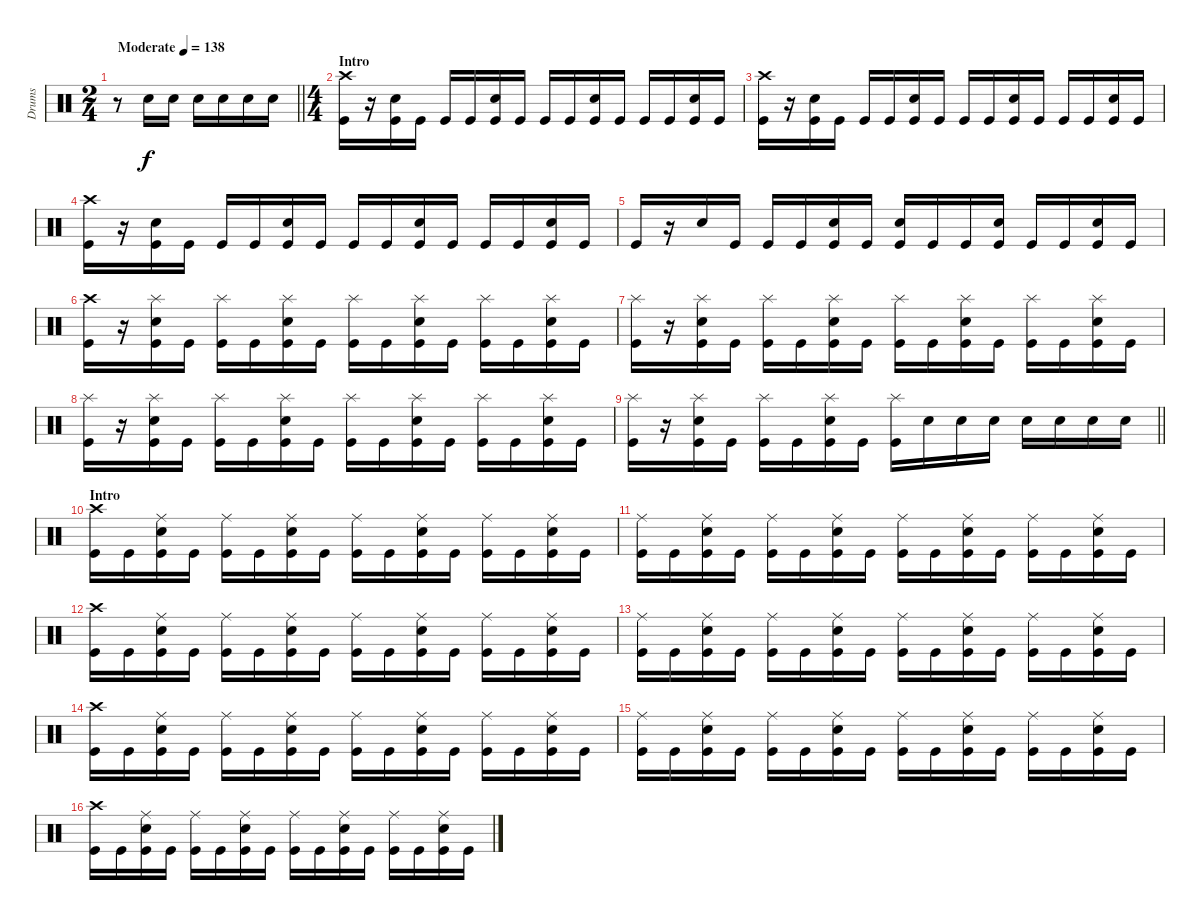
\track ("Drums" "Drums") {instrument percussion}
\staff {score}
\articulation defaults
\ts (2 4)
\tempo (138 "Moderate")
\clef neutral
\barLineRight lightlight
\ks c
r.8{dy f} "Electric Snare (hit)".16 "Electric Snare (hit)".16 "Electric Snare (hit)".16 "Electric Snare (hit)".16 "Electric Snare (hit)".16 "Electric Snare (hit)".16 |
\ts (4 4)
\section ("" "Intro")
("Crash high (hit)" "Kick (hit)").16 r.16 ("Electric Snare (hit)" "Kick (hit)").16 "Kick (hit)".16 "Kick (hit)".16 "Kick (hit)".16 ("Electric Snare (hit)" "Kick (hit)").16 "Kick (hit)".16 "Kick (hit)".16 "Kick (hit)".16 ("Electric Snare (hit)" "Kick (hit)").16 "Kick (hit)".16 "Kick (hit)".16 "Kick (hit)".16 ("Electric Snare (hit)" "Kick (hit)").16 "Kick (hit)".16 |
("Crash high (hit)" "Kick (hit)").16 r.16 ("Electric Snare (hit)" "Kick (hit)").16 "Kick (hit)".16 "Kick (hit)".16 "Kick (hit)".16 ("Electric Snare (hit)" "Kick (hit)").16 "Kick (hit)".16 "Kick (hit)".16 "Kick (hit)".16 ("Electric Snare (hit)" "Kick (hit)").16 "Kick (hit)".16 "Kick (hit)".16 "Kick (hit)".16 ("Electric Snare (hit)" "Kick (hit)").16 "Kick (hit)".16 |
("Crash high (hit)" "Kick (hit)").16 r.16 ("Electric Snare (hit)" "Kick (hit)").16 "Kick (hit)".16 "Kick (hit)".16 "Kick (hit)".16 ("Electric Snare (hit)" "Kick (hit)").16 "Kick (hit)".16 "Kick (hit)".16 "Kick (hit)".16 ("Electric Snare (hit)" "Kick (hit)").16 "Kick (hit)".16 "Kick (hit)".16 "Kick (hit)".16 ("Electric Snare (hit)" "Kick (hit)").16 "Kick (hit)".16 |
"Kick (hit)".16 r.16 "Electric Snare (hit)".16 "Kick (hit)".16 "Kick (hit)".16 "Kick (hit)".16 ("Electric Snare (hit)" "Kick (hit)").16 "Kick (hit)".16 ("Electric Snare (hit)" "Kick (hit)").16 "Kick (hit)".16 "Kick (hit)".16 ("Electric Snare (hit)" "Kick (hit)").16 "Kick (hit)".16 "Kick (hit)".16 ("Electric Snare (hit)" "Kick (hit)").16 "Kick (hit)".16 |
("Crash high (hit)" "Kick (hit)").16 r.16 ("Splash (hit)" "Electric Snare (hit)" "Kick (hit)").16 "Kick (hit)".16 ("Splash (hit)" "Kick (hit)").16 "Kick (hit)".16 ("Splash (hit)" "Electric Snare (hit)" "Kick (hit)").16 "Kick (hit)".16 ("Splash (hit)" "Kick (hit)").16 "Kick (hit)".16 ("Splash (hit)" "Electric Snare (hit)" "Kick (hit)").16 "Kick (hit)".16 ("Splash (hit)" "Kick (hit)").16 "Kick (hit)".16 ("Splash (hit)" "Electric Snare (hit)" "Kick (hit)").16 "Kick (hit)".16 |
("Splash (hit)" "Kick (hit)").16 r.16 ("Splash (hit)" "Electric Snare (hit)" "Kick (hit)").16 "Kick (hit)".16 ("Splash (hit)" "Kick (hit)").16 "Kick (hit)".16 ("Splash (hit)" "Electric Snare (hit)" "Kick (hit)").16 "Kick (hit)".16 ("Splash (hit)" "Kick (hit)").16 "Kick (hit)".16 ("Splash (hit)" "Electric Snare (hit)" "Kick (hit)").16 "Kick (hit)".16 ("Splash (hit)" "Kick (hit)").16 "Kick (hit)".16 ("Splash (hit)" "Electric Snare (hit)" "Kick (hit)").16 "Kick (hit)".16 |
("Splash (hit)" "Kick (hit)").16 r.16 ("Splash (hit)" "Electric Snare (hit)" "Kick (hit)").16 "Kick (hit)".16 ("Splash (hit)" "Kick (hit)").16 "Kick (hit)".16 ("Splash (hit)" "Electric Snare (hit)" "Kick (hit)").16 "Kick (hit)".16 ("Splash (hit)" "Kick (hit)").16 "Kick (hit)".16 ("Splash (hit)" "Electric Snare (hit)" "Kick (hit)").16 "Kick (hit)".16 ("Splash (hit)" "Kick (hit)").16 "Kick (hit)".16 ("Splash (hit)" "Electric Snare (hit)" "Kick (hit)").16 "Kick (hit)".16 |
\barLineRight lightlight
("Splash (hit)" "Kick (hit)").16 r.16 ("Splash (hit)" "Electric Snare (hit)" "Kick (hit)").16 "Kick (hit)".16 ("Splash (hit)" "Kick (hit)").16 "Kick (hit)".16 ("Splash (hit)" "Electric Snare (hit)" "Kick (hit)").16 "Kick (hit)".16 ("Splash (hit)" "Kick (hit)").16 "Electric Snare (hit)".16 "Electric Snare (hit)".16 "Electric Snare (hit)".16 "Electric Snare (hit)".16 "Electric Snare (hit)".16 "Electric Snare (hit)".16 "Electric Snare (hit)".16 |
\section ("" "Intro")
("Crash high (hit)" "Kick (hit)").16 "Kick (hit)".16 ("Ride (middle)" "Electric Snare (hit)" "Kick (hit)").16 "Kick (hit)".16 ("Ride (middle)" "Kick (hit)").16 "Kick (hit)".16 ("Ride (middle)" "Electric Snare (hit)" "Kick (hit)").16 "Kick (hit)".16 ("Ride (middle)" "Kick (hit)").16 "Kick (hit)".16 ("Ride (middle)" "Electric Snare (hit)" "Kick (hit)").16 "Kick (hit)".16 ("Ride (middle)" "Kick (hit)").16 "Kick (hit)".16 ("Ride (middle)" "Electric Snare (hit)" "Kick (hit)").16 "Kick (hit)".16 |
("Ride (middle)" "Kick (hit)").16 "Kick (hit)".16 ("Ride (middle)" "Electric Snare (hit)" "Kick (hit)").16 "Kick (hit)".16 ("Ride (middle)" "Kick (hit)").16 "Kick (hit)".16 ("Ride (middle)" "Electric Snare (hit)" "Kick (hit)").16 "Kick (hit)".16 ("Ride (middle)" "Kick (hit)").16 "Kick (hit)".16 ("Ride (middle)" "Electric Snare (hit)" "Kick (hit)").16 "Kick (hit)".16 ("Ride (middle)" "Kick (hit)").16 "Kick (hit)".16 ("Ride (middle)" "Electric Snare (hit)" "Kick (hit)").16 "Kick (hit)".16 |
("Crash high (hit)" "Kick (hit)").16 "Kick (hit)".16 ("Ride (middle)" "Electric Snare (hit)" "Kick (hit)").16 "Kick (hit)".16 ("Ride (middle)" "Kick (hit)").16 "Kick (hit)".16 ("Ride (middle)" "Electric Snare (hit)" "Kick (hit)").16 "Kick (hit)".16 ("Ride (middle)" "Kick (hit)").16 "Kick (hit)".16 ("Ride (middle)" "Electric Snare (hit)" "Kick (hit)").16 "Kick (hit)".16 ("Ride (middle)" "Kick (hit)").16 "Kick (hit)".16 ("Ride (middle)" "Electric Snare (hit)" "Kick (hit)").16 "Kick (hit)".16 |
("Ride (middle)" "Kick (hit)").16 "Kick (hit)".16 ("Ride (middle)" "Electric Snare (hit)" "Kick (hit)").16 "Kick (hit)".16 ("Ride (middle)" "Kick (hit)").16 "Kick (hit)".16 ("Ride (middle)" "Electric Snare (hit)" "Kick (hit)").16 "Kick (hit)".16 ("Ride (middle)" "Kick (hit)").16 "Kick (hit)".16 ("Ride (middle)" "Electric Snare (hit)" "Kick (hit)").16 "Kick (hit)".16 ("Ride (middle)" "Kick (hit)").16 "Kick (hit)".16 ("Ride (middle)" "Electric Snare (hit)" "Kick (hit)").16 "Kick (hit)".16 |
("Crash high (hit)" "Kick (hit)").16 "Kick (hit)".16 ("Ride (middle)" "Electric Snare (hit)" "Kick (hit)").16 "Kick (hit)".16 ("Ride (middle)" "Kick (hit)").16 "Kick (hit)".16 ("Ride (middle)" "Electric Snare (hit)" "Kick (hit)").16 "Kick (hit)".16 ("Ride (middle)" "Kick (hit)").16 "Kick (hit)".16 ("Ride (middle)" "Electric Snare (hit)" "Kick (hit)").16 "Kick (hit)".16 ("Ride (middle)" "Kick (hit)").16 "Kick (hit)".16 ("Ride (middle)" "Electric Snare (hit)" "Kick (hit)").16 "Kick (hit)".16 |
("Ride (middle)" "Kick (hit)").16 "Kick (hit)".16 ("Ride (middle)" "Electric Snare (hit)" "Kick (hit)").16 "Kick (hit)".16 ("Ride (middle)" "Kick (hit)").16 "Kick (hit)".16 ("Ride (middle)" "Electric Snare (hit)" "Kick (hit)").16 "Kick (hit)".16 ("Ride (middle)" "Kick (hit)").16 "Kick (hit)".16 ("Ride (middle)" "Electric Snare (hit)" "Kick (hit)").16 "Kick (hit)".16 ("Ride (middle)" "Kick (hit)").16 "Kick (hit)".16 ("Ride (middle)" "Electric Snare (hit)" "Kick (hit)").16 "Kick (hit)".16 |
("Crash high (hit)" "Kick (hit)").16 "Kick (hit)".16 ("Ride (middle)" "Electric Snare (hit)" "Kick (hit)").16 "Kick (hit)".16 ("Ride (middle)" "Kick (hit)").16 "Kick (hit)".16 ("Ride (middle)" "Electric Snare (hit)" "Kick (hit)").16 "Kick (hit)".16 ("Ride (middle)" "Kick (hit)").16 "Kick (hit)".16 ("Ride (middle)" "Electric Snare (hit)" "Kick (hit)").16 "Kick (hit)".16 ("Ride (middle)" "Kick (hit)").16 "Kick (hit)".16 ("Ride (middle)" "Electric Snare (hit)" "Kick (hit)").16 "Kick (hit)".16
